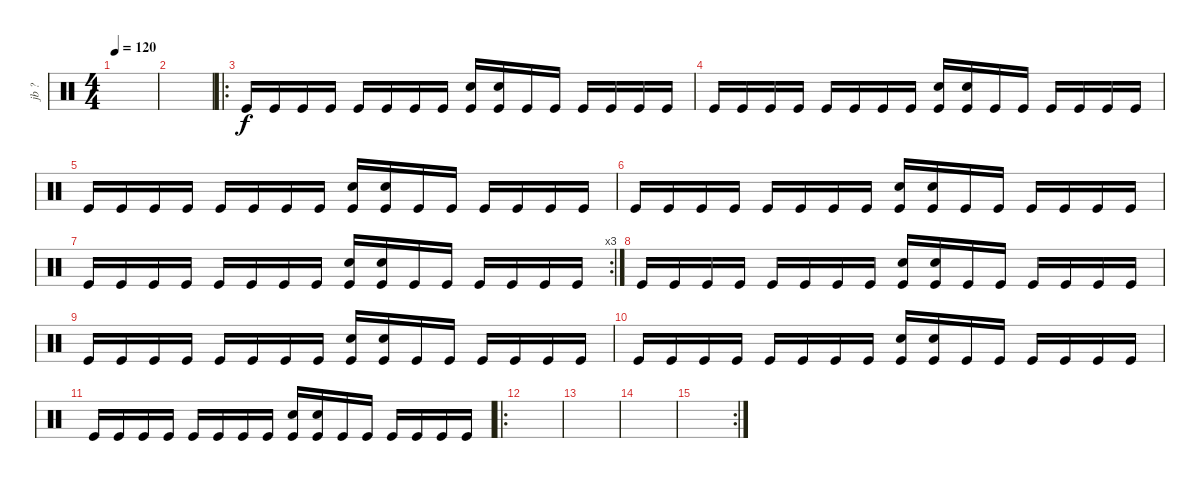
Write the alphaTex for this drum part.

\track ("jb ?" "jb ?") {instrument percussion}
\staff {score}
\articulation defaults
\ts (4 4)
\tempo 120
\clef neutral
\ks c
|
|
\ro "Kick (hit)".16 "Kick (hit)".16 "Kick (hit)".16 "Kick (hit)".16 "Kick (hit)".16 "Kick (hit)".16 "Kick (hit)".16 "Kick (hit)".16
("Electric Snare (hit)" "Kick (hit)").16 ("Snare (hit) 2" "Kick (hit)").16 "Kick (hit)".16 "Kick (hit)".16 "Kick (hit)".16 "Kick (hit)".16 "Kick (hit)".16 "Kick (hit)".16 |
"Kick (hit)".16 "Kick (hit)".16 "Kick (hit)".16 "Kick (hit)".16 "Kick (hit)".16 "Kick (hit)".16 "Kick (hit)".16 "Kick (hit)".16 ("Electric Snare (hit)" "Kick (hit)").16 ("Snare (hit) 2" "Kick (hit)").16 "Kick (hit)".16 "Kick (hit)".16 "Kick (hit)".16 "Kick (hit)".16 "Kick (hit)".16 "Kick (hit)".16 |
"Kick (hit)".16 "Kick (hit)".16 "Kick (hit)".16 "Kick (hit)".16 "Kick (hit)".16 "Kick (hit)".16 "Kick (hit)".16 "Kick (hit)".16 ("Electric Snare (hit)" "Kick (hit)").16 ("Snare (hit) 2" "Kick (hit)").16 "Kick (hit)".16 "Kick (hit)".16 "Kick (hit)".16 "Kick (hit)".16 "Kick (hit)".16 "Kick (hit)".16 |
"Kick (hit)".16 "Kick (hit)".16 "Kick (hit)".16 "Kick (hit)".16 "Kick (hit)".16 "Kick (hit)".16 "Kick (hit)".16 "Kick (hit)".16 ("Electric Snare (hit)" "Kick (hit)").16 ("Snare (hit) 2" "Kick (hit)").16 "Kick (hit)".16 "Kick (hit)".16 "Kick (hit)".16 "Kick (hit)".16 "Kick (hit)".16 "Kick (hit)".16 |
\rc 3 "Kick (hit)".16 "Kick (hit)".16 "Kick (hit)".16 "Kick (hit)".16 "Kick (hit)".16 "Kick (hit)".16 "Kick (hit)".16 "Kick (hit)".16
("Electric Snare (hit)" "Kick (hit)").16 ("Snare (hit) 2" "Kick (hit)").16 "Kick (hit)".16 "Kick (hit)".16 "Kick (hit)".16 "Kick (hit)".16 "Kick (hit)".16 "Kick (hit)".16 |
"Kick (hit)".16 "Kick (hit)".16 "Kick (hit)".16 "Kick (hit)".16 "Kick (hit)".16 "Kick (hit)".16 "Kick (hit)".16 "Kick (hit)".16 ("Electric Snare (hit)" "Kick (hit)").16 ("Snare (hit) 2" "Kick (hit)").16 "Kick (hit)".16 "Kick (hit)".16 "Kick (hit)".16 "Kick (hit)".16 "Kick (hit)".16 "Kick (hit)".16 |
"Kick (hit)".16 "Kick (hit)".16 "Kick (hit)".16 "Kick (hit)".16 "Kick (hit)".16 "Kick (hit)".16 "Kick (hit)".16 "Kick (hit)".16 ("Electric Snare (hit)" "Kick (hit)").16 ("Snare (hit) 2" "Kick (hit)").16 "Kick (hit)".16 "Kick (hit)".16 "Kick (hit)".16 "Kick (hit)".16 "Kick (hit)".16 "Kick (hit)".16 |
"Kick (hit)".16 "Kick (hit)".16 "Kick (hit)".16 "Kick (hit)".16 "Kick (hit)".16 "Kick (hit)".16 "Kick (hit)".16 "Kick (hit)".16 ("Electric Snare (hit)" "Kick (hit)").16 ("Snare (hit) 2" "Kick (hit)").16 "Kick (hit)".16 "Kick (hit)".16 "Kick (hit)".16 "Kick (hit)".16 "Kick (hit)".16 "Kick (hit)".16 |
"Kick (hit)".16 "Kick (hit)".16 "Kick (hit)".16 "Kick (hit)".16 "Kick (hit)".16 "Kick (hit)".16 "Kick (hit)".16 "Kick (hit)".16 ("Electric Snare (hit)" "Kick (hit)").16 ("Snare (hit) 2" "Kick (hit)").16 "Kick (hit)".16 "Kick (hit)".16 "Kick (hit)".16 "Kick (hit)".16 "Kick (hit)".16 "Kick (hit)".16 |
\ro
|
|
|
\rc 2
